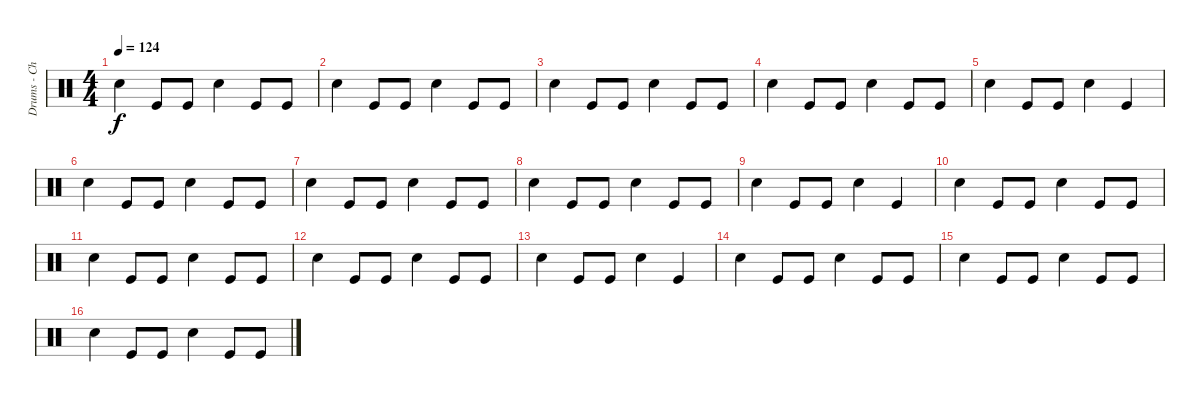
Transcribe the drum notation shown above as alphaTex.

\track ("Drums - Chris Frantz" "Drums - Ch") {instrument percussion}
\staff {score}
\articulation defaults
\ts (4 4)
\tempo 124
\clef neutral
\ks c "Snare (hit) 2".4{dy f} "Kick (hit)".8 "Kick (hit)".8 "Snare (hit) 2".4 "Kick (hit)".8 "Kick (hit)".8
|
"Snare (hit) 2".4 "Kick (hit)".8 "Kick (hit)".8 "Snare (hit) 2".4 "Kick (hit)".8 "Kick (hit)".8 |
"Snare (hit) 2".4 "Kick (hit)".8 "Kick (hit)".8 "Snare (hit) 2".4 "Kick (hit)".8 "Kick (hit)".8 |
"Snare (hit) 2".4 "Kick (hit)".8 "Kick (hit)".8 "Snare (hit) 2".4 "Kick (hit)".8 "Kick (hit)".8 |
"Snare (hit) 2".4 "Kick (hit)".8 "Kick (hit)".8 "Snare (hit) 2".4 "Kick (hit)".4 |
"Snare (hit) 2".4 "Kick (hit)".8 "Kick (hit)".8 "Snare (hit) 2".4 "Kick (hit)".8 "Kick (hit)".8 |
"Snare (hit) 2".4 "Kick (hit)".8 "Kick (hit)".8 "Snare (hit) 2".4 "Kick (hit)".8 "Kick (hit)".8 |
"Snare (hit) 2".4 "Kick (hit)".8 "Kick (hit)".8 "Snare (hit) 2".4 "Kick (hit)".8 "Kick (hit)".8 |
"Snare (hit) 2".4 "Kick (hit)".8 "Kick (hit)".8 "Snare (hit) 2".4 "Kick (hit)".4 |
"Snare (hit) 2".4 "Kick (hit)".8 "Kick (hit)".8 "Snare (hit) 2".4 "Kick (hit)".8 "Kick (hit)".8 |
"Snare (hit) 2".4 "Kick (hit)".8 "Kick (hit)".8 "Snare (hit) 2".4 "Kick (hit)".8 "Kick (hit)".8 |
"Snare (hit) 2".4 "Kick (hit)".8 "Kick (hit)".8 "Snare (hit) 2".4 "Kick (hit)".8 "Kick (hit)".8 |
"Snare (hit) 2".4 "Kick (hit)".8 "Kick (hit)".8 "Snare (hit) 2".4 "Kick (hit)".4 |
"Snare (hit) 2".4 "Kick (hit)".8 "Kick (hit)".8 "Snare (hit) 2".4 "Kick (hit)".8 "Kick (hit)".8 |
"Snare (hit) 2".4 "Kick (hit)".8 "Kick (hit)".8 "Snare (hit) 2".4 "Kick (hit)".8 "Kick (hit)".8 |
"Snare (hit) 2".4 "Kick (hit)".8 "Kick (hit)".8 "Snare (hit) 2".4 "Kick (hit)".8 "Kick (hit)".8
